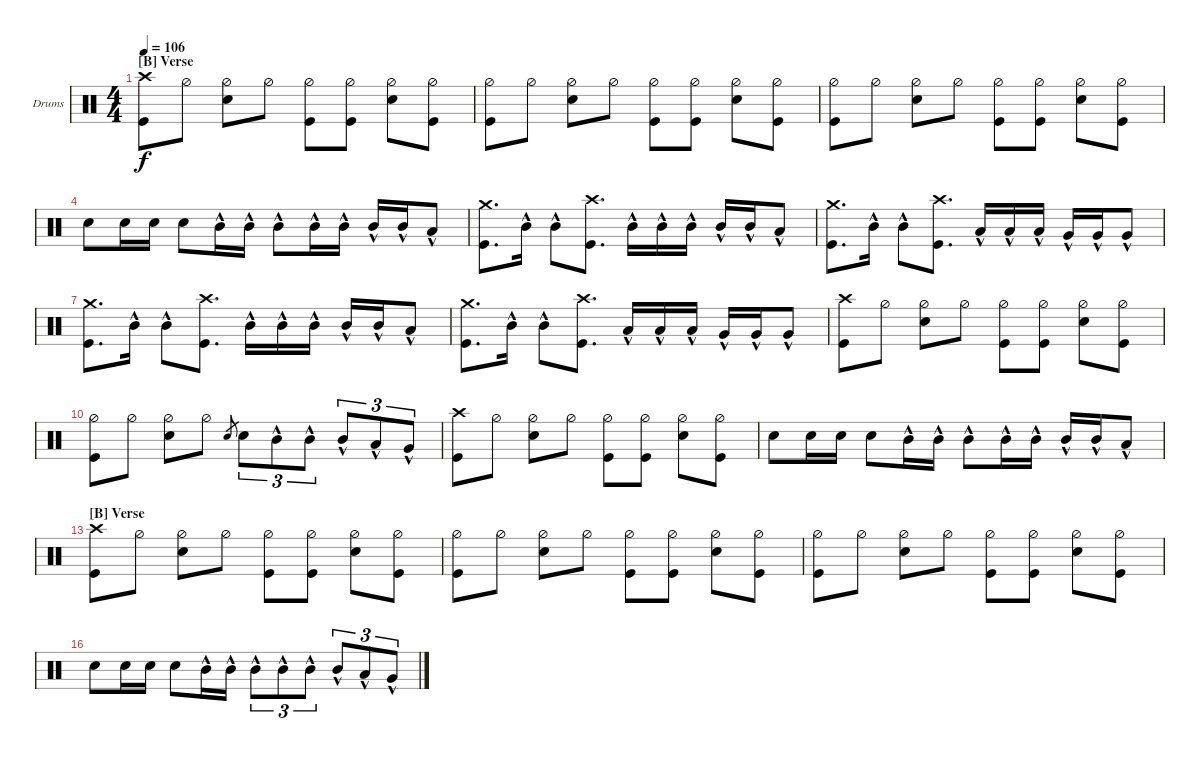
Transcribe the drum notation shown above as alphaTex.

\bracketExtendMode nobrackets
\firstSystemTrackNameOrientation horizontal
\otherSystemsTrackNameOrientation horizontal
\defaultBarNumberDisplay FirstOfSystem
\track ("Herman Rarebell" "Drums") {instrument percussion}
\staff {score}
\articulation defaults
\ts (4 4)
\section ("B" "Verse")
\tempo 106
\clef neutral
\scale
0.490088
\ks c
("Kick (hit)" "Crash high (hit)").8{dy f} "Hi-Hat (half)".8 ("Snare (hit) 2" "Hi-Hat (half)").8 "Hi-Hat (half)".8 ("Kick (hit)" "Hi-Hat (half)").8 ("Hi-Hat (half)" "Kick (hit)").8 ("Snare (hit) 2" "Hi-Hat (half)").8 ("Hi-Hat (half)" "Kick (hit)").8 |
("Kick (hit)" "Hi-Hat (half)").8 "Hi-Hat (half)".8 ("Snare (hit) 2" "Hi-Hat (half)").8 "Hi-Hat (half)".8 ("Kick (hit)" "Hi-Hat (half)").8 ("Hi-Hat (half)" "Kick (hit)").8 ("Snare (hit) 2" "Hi-Hat (half)").8 ("Hi-Hat (half)" "Kick (hit)").8 |
("Kick (hit)" "Hi-Hat (half)").8 "Hi-Hat (half)".8 ("Snare (hit) 2" "Hi-Hat (half)").8 "Hi-Hat (half)".8 ("Kick (hit)" "Hi-Hat (half)").8 ("Hi-Hat (half)" "Kick (hit)").8 ("Snare (hit) 2" "Hi-Hat (half)").8 ("Hi-Hat (half)" "Kick (hit)").8 |
\scale
0.497964 "Snare (hit) 2".8 "Snare (hit) 2".16 "Snare (hit) 2".16 "Snare (hit) 2".8 "Mid Tom (hit)"{hac}.16 "Mid Tom (hit)"{hac}.16 "Mid Tom (hit)"{hac}.8 "Mid Tom (hit)"{hac}.16 "Mid Tom (hit)"{hac}.16 "Mid Tom (hit)"{hac}.16 "Mid Tom (hit)"{hac}.16 "Low Tom (hit)"{hac}.8 |
\scale
0.501792 ("Kick (hit)" "Crash medium (hit)").8{d} "Mid Tom (hit)"{hac}.16 "Mid Tom (hit)"{hac}.8 ("Kick (hit)" "Crash high (hit)").8{d} "Mid Tom (hit)"{hac}.16 "Mid Tom (hit)"{hac}.16 "Mid Tom (hit)"{hac}.16 "Mid Tom (hit)"{hac}.16 "Mid Tom (hit)"{hac}.16 "Low Tom (hit)"{hac}.8 |
("Kick (hit)" "Crash medium (hit)").8{d} "Mid Tom (hit)"{hac}.16 "Mid Tom (hit)"{hac}.8 ("Kick (hit)" "Crash high (hit)").8{d} "Low Tom (hit)"{hac}.16 "Low Tom (hit)"{hac}.16 "Low Tom (hit)"{hac}.16 "Very Low Tom (hit)"{hac}.16 "Very Low Tom (hit)"{hac}.16 "Very Low Tom (hit)"{hac}.8 |
("Kick (hit)" "Crash medium (hit)").8{d} "Mid Tom (hit)"{hac}.16 "Mid Tom (hit)"{hac}.8 ("Kick (hit)" "Crash high (hit)").8{d} "Mid Tom (hit)"{hac}.16 "Mid Tom (hit)"{hac}.16 "Mid Tom (hit)"{hac}.16 "Mid Tom (hit)"{hac}.16 "Mid Tom (hit)"{hac}.16 "Low Tom (hit)"{hac}.8 |
\scale
0.491283 ("Kick (hit)" "Crash medium (hit)").8{d} "Mid Tom (hit)"{hac}.16 "Mid Tom (hit)"{hac}.8 ("Kick (hit)" "Crash high (hit)").8{d} "Low Tom (hit)"{hac}.16 "Low Tom (hit)"{hac}.16 "Low Tom (hit)"{hac}.16 "Very Low Tom (hit)"{hac}.16 "Very Low Tom (hit)"{hac}.16 "Very Low Tom (hit)"{hac}.8 |
\scale
0.508475 ("Kick (hit)" "Crash high (hit)").8 "Hi-Hat (half)".8 ("Snare (hit) 2" "Hi-Hat (half)").8 "Hi-Hat (half)".8 ("Kick (hit)" "Hi-Hat (half)").8 ("Hi-Hat (half)" "Kick (hit)").8 ("Snare (hit) 2" "Hi-Hat (half)").8 ("Hi-Hat (half)" "Kick (hit)").8 |
\scale
0.504393 ("Kick (hit)" "Hi-Hat (half)").8 "Hi-Hat (half)".8 ("Snare (hit) 2" "Hi-Hat (half)").8 "Hi-Hat (half)".8 "Snare (hit) 2".8{gr} "Snare (hit) 2".8{tu (3 2)} "Mid Tom (hit)"{hac}.8{tu (3 2)} "Mid Tom (hit)"{hac}.8{tu (3 2)} "Mid Tom (hit)"{hac}.8{tu (3 2)} "Low Tom (hit)"{hac}.8{tu (3 2)} "Very Low Tom (hit)"{hac}.8{tu (3 2)} |
\scale
0.495506 ("Kick (hit)" "Crash high (hit)").8 "Hi-Hat (half)".8 ("Snare (hit) 2" "Hi-Hat (half)").8 "Hi-Hat (half)".8 ("Kick (hit)" "Hi-Hat (half)").8 ("Hi-Hat (half)" "Kick (hit)").8 ("Snare (hit) 2" "Hi-Hat (half)").8 ("Hi-Hat (half)" "Kick (hit)").8 |
"Snare (hit) 2".8 "Snare (hit) 2".16 "Snare (hit) 2".16 "Snare (hit) 2".8 "Mid Tom (hit)"{hac}.16 "Mid Tom (hit)"{hac}.16 "Mid Tom (hit)"{hac}.8 "Mid Tom (hit)"{hac}.16 "Mid Tom (hit)"{hac}.16 "Mid Tom (hit)"{hac}.16 "Mid Tom (hit)"{hac}.16 "Low Tom (hit)"{hac}.8 |
\section ("B" "Verse")
("Kick (hit)" "Crash high (hit)").8 "Hi-Hat (half)".8 ("Snare (hit) 2" "Hi-Hat (half)").8 "Hi-Hat (half)".8 ("Kick (hit)" "Hi-Hat (half)").8 ("Hi-Hat (half)" "Kick (hit)").8 ("Snare (hit) 2" "Hi-Hat (half)").8 ("Hi-Hat (half)" "Kick (hit)").8 |
("Kick (hit)" "Hi-Hat (half)").8 "Hi-Hat (half)".8 ("Snare (hit) 2" "Hi-Hat (half)").8 "Hi-Hat (half)".8 ("Kick (hit)" "Hi-Hat (half)").8 ("Hi-Hat (half)" "Kick (hit)").8 ("Snare (hit) 2" "Hi-Hat (half)").8 ("Hi-Hat (half)" "Kick (hit)").8 |
("Kick (hit)" "Hi-Hat (half)").8 "Hi-Hat (half)".8 ("Snare (hit) 2" "Hi-Hat (half)").8 "Hi-Hat (half)".8 ("Kick (hit)" "Hi-Hat (half)").8 ("Hi-Hat (half)" "Kick (hit)").8 ("Snare (hit) 2" "Hi-Hat (half)").8 ("Hi-Hat (half)" "Kick (hit)").8 |
\scale
0.523149 "Snare (hit) 2".8 "Snare (hit) 2".16 "Snare (hit) 2".16 "Snare (hit) 2".8 "Mid Tom (hit)"{hac}.16 "Mid Tom (hit)"{hac}.16 "Mid Tom (hit)"{hac}.8{tu (3 2)} "Mid Tom (hit)"{hac}.8{tu (3 2)} "Mid Tom (hit)"{hac}.8{tu (3 2)} "Mid Tom (hit)"{hac}.8{tu (3 2)} "Low Tom (hit)"{hac}.8{tu (3 2)} "Very Low Tom (hit)"{hac}.8{tu (3 2)}
